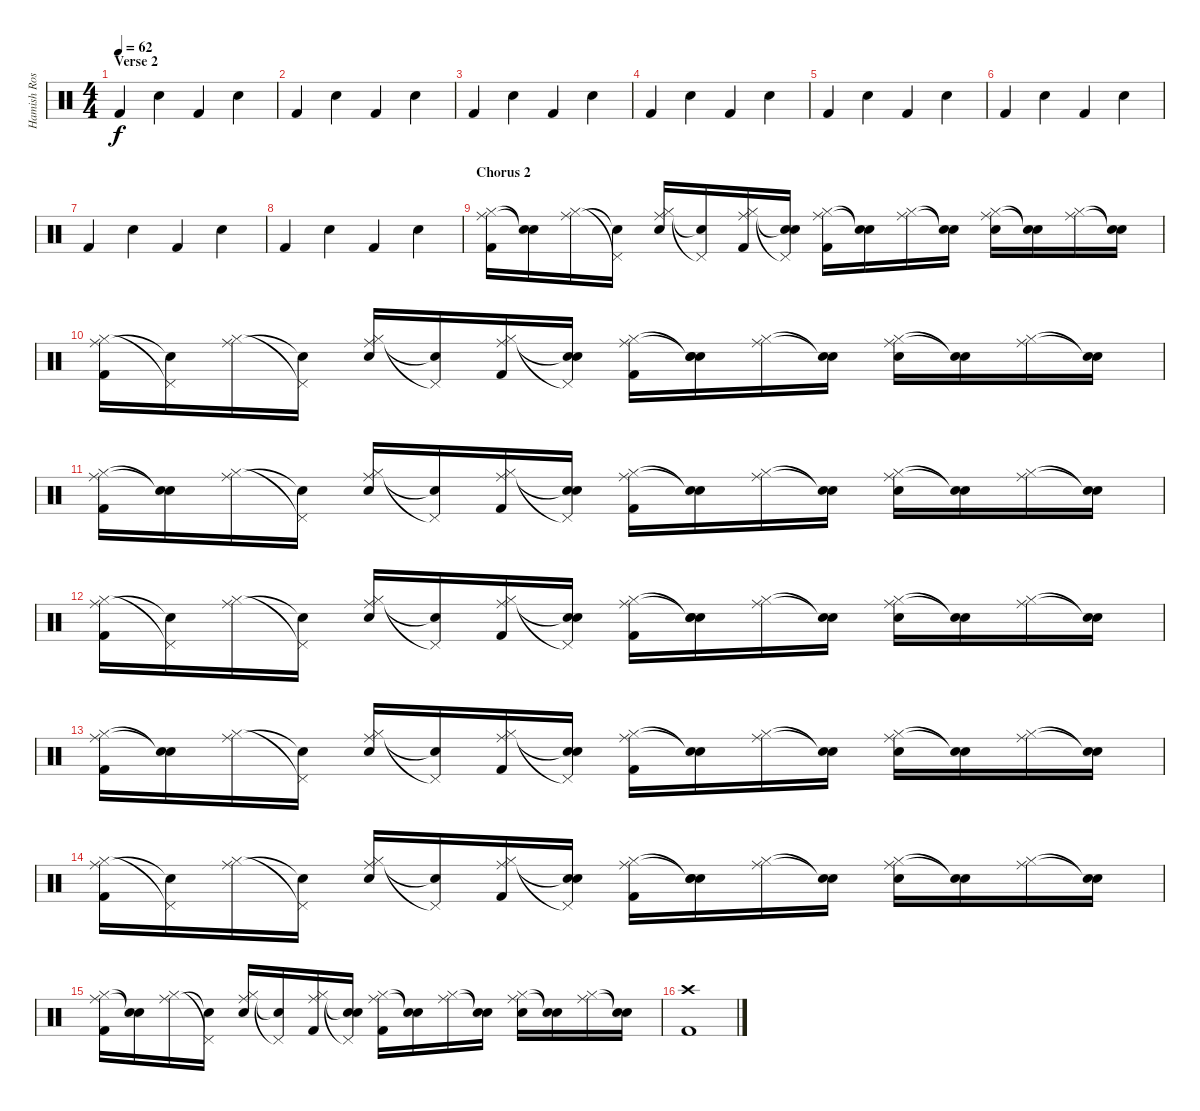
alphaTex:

\track ("Hamish Rosser" "Hamish Ros") {instrument percussion}
\staff {score}
\articulation defaults
\ts (4 4)
\section ("" "Verse 2")
\tempo 62
\clef neutral
\ks c "Kick (hit) 2".4{dy f} "Electric Snare (hit)".4 "Kick (hit) 2".4 "Electric Snare (hit)".4
|
"Kick (hit) 2".4 "Electric Snare (hit)".4 "Kick (hit) 2".4 "Electric Snare (hit)".4 |
"Kick (hit) 2".4 "Electric Snare (hit)".4 "Kick (hit) 2".4 "Electric Snare (hit)".4 |
"Kick (hit) 2".4 "Electric Snare (hit)".4 "Kick (hit) 2".4 "Electric Snare (hit)".4 |
"Kick (hit) 2".4 "Electric Snare (hit)".4 "Kick (hit) 2".4 "Electric Snare (hit)".4 |
"Kick (hit) 2".4 "Electric Snare (hit)".4 "Kick (hit) 2".4 "Electric Snare (hit)".4 |
"Kick (hit) 2".4 "Electric Snare (hit)".4 "Kick (hit) 2".4 "Electric Snare (hit)".4 |
"Kick (hit) 2".4 "Electric Snare (hit)".4 "Kick (hit) 2".4 "Electric Snare (hit)".4 |
\section ("" "Chorus 2")
("Hi-Hat (closed)" "Ride (middle)" "Kick (hit) 2").16 ("Snare (hit)"{t} "Snare (hit)"{t}).16 ("Hi-Hat (closed)" "Ride (middle)").16 ("Pedal Hi-Hat (hit)"{t} "Snare (hit)"{t}).16 ("Hi-Hat (closed)" "Ride (middle)" "Electric Snare (hit)").16 ("Pedal Hi-Hat (hit)"{t} "Snare (hit)"{t}).16 ("Hi-Hat (closed)" "Ride (middle)" "Kick (hit) 2").16 ("Pedal Hi-Hat (hit)"{t} "Snare (hit)"{t} "Electric Snare (hit)").16 ("Hi-Hat (closed)" "Ride (middle)" "Kick (hit) 2").16 ("Snare (hit)"{t} "Snare (hit)"{t}).16 ("Hi-Hat (closed)" "Ride (middle)").16 ("Snare (hit)"{t} "Snare (hit)"{t}).16 ("Hi-Hat (closed)" "Ride (middle)" "Electric Snare (hit)").16 ("Snare (hit)"{t} "Snare (hit)"{t}).16 ("Hi-Hat (closed)" "Ride (middle)").16 ("Snare (hit)"{t} "Snare (hit)"{t}).16 |
("Hi-Hat (closed)" "Ride (middle)" "Kick (hit) 2").16 ("Pedal Hi-Hat (hit)"{t} "Snare (hit)"{t}).16 ("Hi-Hat (closed)" "Ride (middle)").16 ("Pedal Hi-Hat (hit)"{t} "Snare (hit)"{t}).16 ("Hi-Hat (closed)" "Ride (middle)" "Electric Snare (hit)").16 ("Pedal Hi-Hat (hit)"{t} "Snare (hit)"{t}).16 ("Hi-Hat (closed)" "Ride (middle)" "Kick (hit) 2").16 ("Pedal Hi-Hat (hit)"{t} "Snare (hit)"{t} "Electric Snare (hit)").16 ("Hi-Hat (closed)" "Ride (middle)" "Kick (hit) 2").16 ("Snare (hit)"{t} "Snare (hit)"{t} "Electric Snare (hit)").16 ("Hi-Hat (closed)" "Ride (middle)").16 ("Snare (hit)"{t} "Snare (hit)"{t}).16 ("Hi-Hat (closed)" "Ride (middle)" "Electric Snare (hit)").16 ("Snare (hit)"{t} "Snare (hit)"{t}).16 ("Hi-Hat (closed)" "Ride (middle)").16 ("Snare (hit)"{t} "Snare (hit)"{t}).16 |
("Hi-Hat (closed)" "Ride (middle)" "Kick (hit) 2").16 ("Snare (hit)"{t} "Snare (hit)"{t}).16 ("Hi-Hat (closed)" "Ride (middle)").16 ("Pedal Hi-Hat (hit)"{t} "Snare (hit)"{t}).16 ("Hi-Hat (closed)" "Ride (middle)" "Electric Snare (hit)").16 ("Pedal Hi-Hat (hit)"{t} "Snare (hit)"{t}).16 ("Hi-Hat (closed)" "Ride (middle)" "Kick (hit) 2").16 ("Pedal Hi-Hat (hit)"{t} "Snare (hit)"{t} "Electric Snare (hit)").16 ("Hi-Hat (closed)" "Ride (middle)" "Kick (hit) 2").16 ("Snare (hit)"{t} "Snare (hit)"{t}).16 ("Hi-Hat (closed)" "Ride (middle)").16 ("Snare (hit)"{t} "Snare (hit)"{t}).16 ("Hi-Hat (closed)" "Ride (middle)" "Electric Snare (hit)").16 ("Snare (hit)"{t} "Snare (hit)"{t}).16 ("Hi-Hat (closed)" "Ride (middle)").16 ("Snare (hit)"{t} "Snare (hit)"{t}).16 |
("Hi-Hat (closed)" "Ride (middle)" "Kick (hit) 2").16 ("Pedal Hi-Hat (hit)"{t} "Snare (hit)"{t}).16 ("Hi-Hat (closed)" "Ride (middle)").16 ("Pedal Hi-Hat (hit)"{t} "Snare (hit)"{t}).16 ("Hi-Hat (closed)" "Ride (middle)" "Electric Snare (hit)").16 ("Pedal Hi-Hat (hit)"{t} "Snare (hit)"{t}).16 ("Hi-Hat (closed)" "Ride (middle)" "Kick (hit) 2").16 ("Pedal Hi-Hat (hit)"{t} "Snare (hit)"{t} "Electric Snare (hit)").16 ("Hi-Hat (closed)" "Ride (middle)" "Kick (hit) 2").16 ("Snare (hit)"{t} "Snare (hit)"{t} "Electric Snare (hit)").16 ("Hi-Hat (closed)" "Ride (middle)").16 ("Snare (hit)"{t} "Snare (hit)"{t}).16 ("Hi-Hat (closed)" "Ride (middle)" "Electric Snare (hit)").16 ("Snare (hit)"{t} "Snare (hit)"{t}).16 ("Hi-Hat (closed)" "Ride (middle)").16 ("Snare (hit)"{t} "Snare (hit)"{t}).16 |
("Hi-Hat (closed)" "Ride (middle)" "Kick (hit) 2").16 ("Snare (hit)"{t} "Snare (hit)"{t}).16 ("Hi-Hat (closed)" "Ride (middle)").16 ("Pedal Hi-Hat (hit)"{t} "Snare (hit)"{t}).16 ("Hi-Hat (closed)" "Ride (middle)" "Electric Snare (hit)").16 ("Pedal Hi-Hat (hit)"{t} "Snare (hit)"{t}).16 ("Hi-Hat (closed)" "Ride (middle)" "Kick (hit) 2").16 ("Pedal Hi-Hat (hit)"{t} "Snare (hit)"{t} "Electric Snare (hit)").16 ("Hi-Hat (closed)" "Ride (middle)" "Kick (hit) 2").16 ("Snare (hit)"{t} "Snare (hit)"{t}).16 ("Hi-Hat (closed)" "Ride (middle)").16 ("Snare (hit)"{t} "Snare (hit)"{t}).16 ("Hi-Hat (closed)" "Ride (middle)" "Electric Snare (hit)").16 ("Snare (hit)"{t} "Snare (hit)"{t}).16 ("Hi-Hat (closed)" "Ride (middle)").16 ("Snare (hit)"{t} "Snare (hit)"{t}).16 |
("Hi-Hat (closed)" "Ride (middle)" "Kick (hit) 2").16 ("Pedal Hi-Hat (hit)"{t} "Snare (hit)"{t}).16 ("Hi-Hat (closed)" "Ride (middle)").16 ("Pedal Hi-Hat (hit)"{t} "Snare (hit)"{t}).16 ("Hi-Hat (closed)" "Ride (middle)" "Electric Snare (hit)").16 ("Pedal Hi-Hat (hit)"{t} "Snare (hit)"{t}).16 ("Hi-Hat (closed)" "Ride (middle)" "Kick (hit) 2").16 ("Pedal Hi-Hat (hit)"{t} "Snare (hit)"{t} "Electric Snare (hit)").16 ("Hi-Hat (closed)" "Ride (middle)" "Kick (hit) 2").16 ("Snare (hit)"{t} "Snare (hit)"{t} "Electric Snare (hit)").16 ("Hi-Hat (closed)" "Ride (middle)").16 ("Snare (hit)"{t} "Snare (hit)"{t}).16 ("Hi-Hat (closed)" "Ride (middle)" "Electric Snare (hit)").16 ("Snare (hit)"{t} "Snare (hit)"{t}).16 ("Hi-Hat (closed)" "Ride (middle)").16 ("Snare (hit)"{t} "Snare (hit)"{t}).16 |
("Hi-Hat (closed)" "Ride (middle)" "Kick (hit) 2").16 ("Snare (hit)"{t} "Snare (hit)"{t}).16 ("Hi-Hat (closed)" "Ride (middle)").16 ("Pedal Hi-Hat (hit)"{t} "Snare (hit)"{t}).16 ("Hi-Hat (closed)" "Ride (middle)" "Electric Snare (hit)").16 ("Pedal Hi-Hat (hit)"{t} "Snare (hit)"{t}).16 ("Hi-Hat (closed)" "Ride (middle)" "Kick (hit) 2").16 ("Pedal Hi-Hat (hit)"{t} "Snare (hit)"{t} "Electric Snare (hit)").16 ("Hi-Hat (closed)" "Ride (middle)" "Kick (hit) 2").16 ("Snare (hit)"{t} "Snare (hit)"{t}).16 ("Hi-Hat (closed)" "Ride (middle)").16 ("Snare (hit)"{t} "Snare (hit)"{t}).16 ("Hi-Hat (closed)" "Ride (middle)" "Electric Snare (hit)").16 ("Snare (hit)"{t} "Snare (hit)"{t}).16 ("Hi-Hat (closed)" "Ride (middle)").16 ("Snare (hit)"{t} "Snare (hit)"{t}).16 |
("Crash high (hit)" "Kick (hit) 2").1
